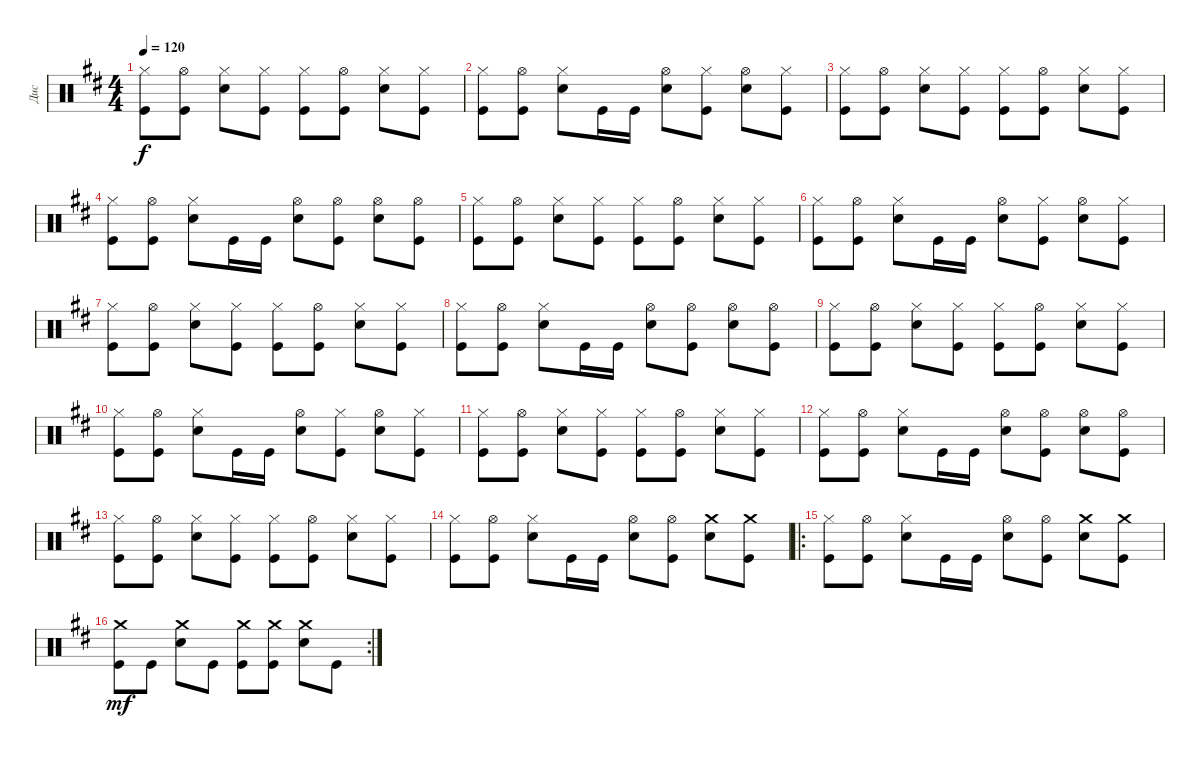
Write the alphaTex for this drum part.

\track ("Дис" "Дис") {instrument percussion}
\staff {score}
\articulation defaults
\ts (4 4)
\tempo 120
\clef neutral
\ks bminor
("Hi-Hat (closed)" "Kick (hit)").8{dy f} ("Hi-Hat (open)" "Kick (hit)").8 ("Hi-Hat (closed)" "Electric Snare (hit)").8 ("Hi-Hat (closed)" "Kick (hit)").8 ("Hi-Hat (closed)" "Kick (hit)").8 ("Hi-Hat (open)" "Kick (hit)").8 ("Hi-Hat (closed)" "Electric Snare (hit)").8 ("Hi-Hat (closed)" "Kick (hit)").8 |
("Hi-Hat (closed)" "Kick (hit)").8 ("Hi-Hat (open)" "Kick (hit)").8 ("Hi-Hat (closed)" "Electric Snare (hit)").8 "Kick (hit)".16 "Kick (hit)".16 ("Hi-Hat (open)" "Electric Snare (hit)").8 ("Hi-Hat (closed)" "Kick (hit)").8 ("Hi-Hat (open)" "Electric Snare (hit)").8 ("Hi-Hat (closed)" "Kick (hit)").8 |
("Hi-Hat (closed)" "Kick (hit)").8 ("Hi-Hat (open)" "Kick (hit)").8 ("Hi-Hat (closed)" "Electric Snare (hit)").8 ("Hi-Hat (closed)" "Kick (hit)").8 ("Hi-Hat (closed)" "Kick (hit)").8 ("Hi-Hat (open)" "Kick (hit)").8 ("Hi-Hat (closed)" "Electric Snare (hit)").8 ("Hi-Hat (closed)" "Kick (hit)").8 |
("Hi-Hat (closed)" "Kick (hit)").8 ("Hi-Hat (open)" "Kick (hit)").8 ("Hi-Hat (closed)" "Electric Snare (hit)").8 "Kick (hit)".16 "Kick (hit)".16 ("Hi-Hat (open)" "Electric Snare (hit)").8 ("Hi-Hat (open)" "Kick (hit)").8 ("Hi-Hat (open)" "Electric Snare (hit)").8 ("Hi-Hat (open)" "Kick (hit)").8 |
("Hi-Hat (closed)" "Kick (hit)").8 ("Hi-Hat (open)" "Kick (hit)").8 ("Hi-Hat (closed)" "Electric Snare (hit)").8 ("Hi-Hat (closed)" "Kick (hit)").8 ("Hi-Hat (closed)" "Kick (hit)").8 ("Hi-Hat (open)" "Kick (hit)").8 ("Hi-Hat (closed)" "Electric Snare (hit)").8 ("Hi-Hat (closed)" "Kick (hit)").8 |
("Hi-Hat (closed)" "Kick (hit)").8 ("Hi-Hat (open)" "Kick (hit)").8 ("Hi-Hat (closed)" "Electric Snare (hit)").8 "Kick (hit)".16 "Kick (hit)".16 ("Hi-Hat (open)" "Electric Snare (hit)").8 ("Hi-Hat (closed)" "Kick (hit)").8 ("Hi-Hat (open)" "Electric Snare (hit)").8 ("Hi-Hat (closed)" "Kick (hit)").8 |
("Hi-Hat (closed)" "Kick (hit)").8 ("Hi-Hat (open)" "Kick (hit)").8 ("Hi-Hat (closed)" "Electric Snare (hit)").8 ("Hi-Hat (closed)" "Kick (hit)").8 ("Hi-Hat (closed)" "Kick (hit)").8 ("Hi-Hat (open)" "Kick (hit)").8 ("Hi-Hat (closed)" "Electric Snare (hit)").8 ("Hi-Hat (closed)" "Kick (hit)").8 |
("Hi-Hat (closed)" "Kick (hit)").8 ("Hi-Hat (open)" "Kick (hit)").8 ("Hi-Hat (closed)" "Electric Snare (hit)").8 "Kick (hit)".16 "Kick (hit)".16 ("Hi-Hat (open)" "Electric Snare (hit)").8 ("Hi-Hat (open)" "Kick (hit)").8 ("Hi-Hat (open)" "Electric Snare (hit)").8 ("Hi-Hat (open)" "Kick (hit)").8 |
("Hi-Hat (closed)" "Kick (hit)").8 ("Hi-Hat (open)" "Kick (hit)").8 ("Hi-Hat (closed)" "Electric Snare (hit)").8 ("Hi-Hat (closed)" "Kick (hit)").8 ("Hi-Hat (closed)" "Kick (hit)").8 ("Hi-Hat (open)" "Kick (hit)").8 ("Hi-Hat (closed)" "Electric Snare (hit)").8 ("Hi-Hat (closed)" "Kick (hit)").8 |
("Hi-Hat (closed)" "Kick (hit)").8 ("Hi-Hat (open)" "Kick (hit)").8 ("Hi-Hat (closed)" "Electric Snare (hit)").8 "Kick (hit)".16 "Kick (hit)".16 ("Hi-Hat (open)" "Electric Snare (hit)").8 ("Hi-Hat (closed)" "Kick (hit)").8 ("Hi-Hat (open)" "Electric Snare (hit)").8 ("Hi-Hat (closed)" "Kick (hit)").8 |
("Hi-Hat (closed)" "Kick (hit)").8 ("Hi-Hat (open)" "Kick (hit)").8 ("Hi-Hat (closed)" "Electric Snare (hit)").8 ("Hi-Hat (closed)" "Kick (hit)").8 ("Hi-Hat (closed)" "Kick (hit)").8 ("Hi-Hat (open)" "Kick (hit)").8 ("Hi-Hat (closed)" "Electric Snare (hit)").8 ("Hi-Hat (closed)" "Kick (hit)").8 |
("Hi-Hat (closed)" "Kick (hit)").8 ("Hi-Hat (open)" "Kick (hit)").8 ("Hi-Hat (closed)" "Electric Snare (hit)").8 "Kick (hit)".16 "Kick (hit)".16 ("Hi-Hat (open)" "Electric Snare (hit)").8 ("Hi-Hat (open)" "Kick (hit)").8 ("Hi-Hat (open)" "Electric Snare (hit)").8 ("Hi-Hat (open)" "Kick (hit)").8 |
("Hi-Hat (closed)" "Kick (hit)").8 ("Hi-Hat (open)" "Kick (hit)").8 ("Hi-Hat (closed)" "Electric Snare (hit)").8 ("Hi-Hat (closed)" "Kick (hit)").8 ("Hi-Hat (closed)" "Kick (hit)").8 ("Hi-Hat (open)" "Kick (hit)").8 ("Hi-Hat (closed)" "Electric Snare (hit)").8 ("Hi-Hat (closed)" "Kick (hit)").8 |
("Hi-Hat (closed)" "Kick (hit)").8 ("Hi-Hat (open)" "Kick (hit)").8 ("Hi-Hat (closed)" "Electric Snare (hit)").8 "Kick (hit)".16 "Kick (hit)".16 ("Hi-Hat (open)" "Electric Snare (hit)").8 ("Hi-Hat (open)" "Kick (hit)").8 ("Crash medium (hit)" "Electric Snare (hit)").8 ("Crash medium (hit)" "Kick (hit)").8 |
\ro
("Hi-Hat (closed)" "Kick (hit)").8 ("Hi-Hat (open)" "Kick (hit)").8 ("Hi-Hat (closed)" "Electric Snare (hit)").8 "Kick (hit)".16 "Kick (hit)".16 ("Hi-Hat (open)" "Electric Snare (hit)").8 ("Hi-Hat (open)" "Kick (hit)").8 ("Crash medium (hit)" "Electric Snare (hit)").8 ("Crash medium (hit)" "Kick (hit)").8 |
\rc 2
("Crash medium (hit)" "Kick (hit)").8{dy mf} "Kick (hit)".8 ("Crash medium (hit)" "Electric Snare (hit)").8 "Kick (hit)".8 ("Crash medium (hit)" "Kick (hit)").8 ("Crash medium (hit)" "Kick (hit)").8 ("Crash medium (hit)" "Electric Snare (hit)").8 "Kick (hit)".8
